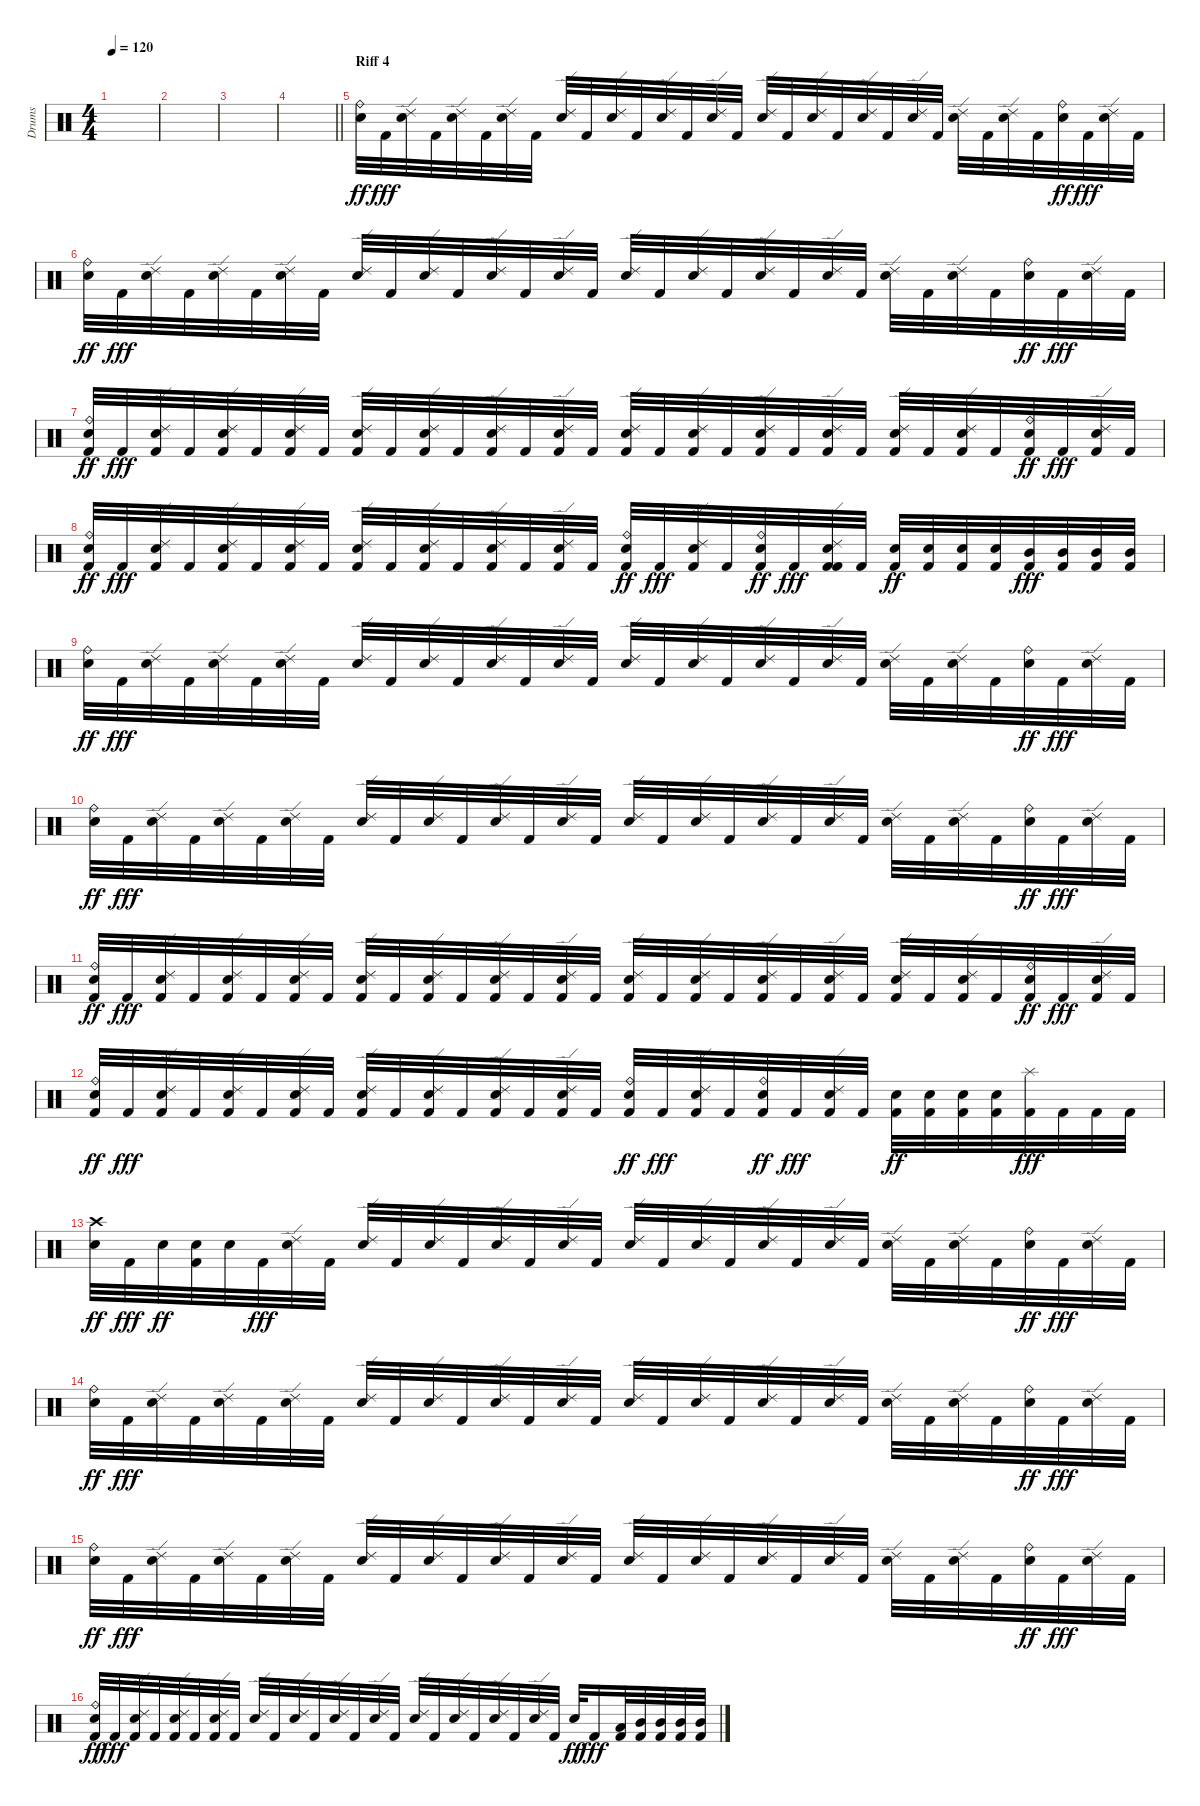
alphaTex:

\track ("Drums" "Drums") {instrument percussion}
\staff {score}
\articulation defaults
\ts (4 4)
\tempo 120
\clef neutral
\ks c
|
|
|
\barLineRight lightlight
|
\section ("" "Riff 4")
("Snare (hit) 2" "Ride (bell)").32{dy ff} "Kick (hit) 2".32{dy fff} ("Snare (hit) 2" "Ride (edge) 2").32 "Kick (hit) 2".32 ("Snare (hit) 2" "Ride (edge) 2").32 "Kick (hit) 2".32 ("Snare (hit) 2" "Ride (edge) 2").32 "Kick (hit) 2".32 ("Snare (hit) 2" "Ride (edge) 2").32 "Kick (hit) 2".32 ("Snare (hit) 2" "Ride (edge) 2").32 "Kick (hit) 2".32 ("Snare (hit) 2" "Ride (edge) 2").32 "Kick (hit) 2".32 ("Snare (hit) 2" "Ride (edge) 2").32 "Kick (hit) 2".32 ("Snare (hit) 2" "Ride (edge) 2").32 "Kick (hit) 2".32 ("Snare (hit) 2" "Ride (edge) 2").32 "Kick (hit) 2".32 ("Snare (hit) 2" "Ride (edge) 2").32 "Kick (hit) 2".32 ("Snare (hit) 2" "Ride (edge) 2").32 "Kick (hit) 2".32 ("Snare (hit) 2" "Ride (edge) 2").32 "Kick (hit) 2".32 ("Snare (hit) 2" "Ride (edge) 2").32 "Kick (hit) 2".32 ("Snare (hit) 2" "Ride (bell)").32{dy ff} "Kick (hit) 2".32{dy fff} ("Snare (hit) 2" "Ride (edge) 2").32 "Kick (hit) 2".32 |
("Snare (hit) 2" "Ride (bell)").32{dy ff} "Kick (hit) 2".32{dy fff} ("Snare (hit) 2" "Ride (edge) 2").32 "Kick (hit) 2".32 ("Snare (hit) 2" "Ride (edge) 2").32 "Kick (hit) 2".32 ("Snare (hit) 2" "Ride (edge) 2").32 "Kick (hit) 2".32 ("Snare (hit) 2" "Ride (edge) 2").32 "Kick (hit) 2".32 ("Snare (hit) 2" "Ride (edge) 2").32 "Kick (hit) 2".32 ("Snare (hit) 2" "Ride (edge) 2").32 "Kick (hit) 2".32 ("Snare (hit) 2" "Ride (edge) 2").32 "Kick (hit) 2".32 ("Snare (hit) 2" "Ride (edge) 2").32 "Kick (hit) 2".32 ("Snare (hit) 2" "Ride (edge) 2").32 "Kick (hit) 2".32 ("Snare (hit) 2" "Ride (edge) 2").32 "Kick (hit) 2".32 ("Snare (hit) 2" "Ride (edge) 2").32 "Kick (hit) 2".32 ("Snare (hit) 2" "Ride (edge) 2").32 "Kick (hit) 2".32 ("Snare (hit) 2" "Ride (edge) 2").32 "Kick (hit) 2".32 ("Snare (hit) 2" "Ride (bell)").32{dy ff} "Kick (hit) 2".32{dy fff} ("Snare (hit) 2" "Ride (edge) 2").32 "Kick (hit) 2".32 |
("Kick (hit) 2" "Snare (hit) 2" "Ride (bell)").32{dy ff} "Kick (hit) 2".32{dy fff} ("Kick (hit) 2" "Snare (hit) 2" "Ride (edge) 2").32 "Kick (hit) 2".32 ("Kick (hit) 2" "Snare (hit) 2" "Ride (edge) 2").32 "Kick (hit) 2".32 ("Kick (hit) 2" "Snare (hit) 2" "Ride (edge) 2").32 "Kick (hit) 2".32 ("Kick (hit) 2" "Snare (hit) 2" "Ride (edge) 2").32 "Kick (hit) 2".32 ("Kick (hit) 2" "Snare (hit) 2" "Ride (edge) 2").32 "Kick (hit) 2".32 ("Kick (hit) 2" "Snare (hit) 2" "Ride (edge) 2").32 "Kick (hit) 2".32 ("Kick (hit) 2" "Snare (hit) 2" "Ride (edge) 2").32 "Kick (hit) 2".32 ("Kick (hit) 2" "Snare (hit) 2" "Ride (edge) 2").32 "Kick (hit) 2".32 ("Kick (hit) 2" "Snare (hit) 2" "Ride (edge) 2").32 "Kick (hit) 2".32 ("Kick (hit) 2" "Snare (hit) 2" "Ride (edge) 2").32 "Kick (hit) 2".32 ("Kick (hit) 2" "Snare (hit) 2" "Ride (edge) 2").32 "Kick (hit) 2".32 ("Kick (hit) 2" "Snare (hit) 2" "Ride (edge) 2").32 "Kick (hit) 2".32 ("Kick (hit) 2" "Snare (hit) 2" "Ride (edge) 2").32 "Kick (hit) 2".32 ("Kick (hit) 2" "Snare (hit) 2" "Ride (bell)").32{dy ff} "Kick (hit) 2".32{dy fff} ("Kick (hit) 2" "Snare (hit) 2" "Ride (edge) 2").32 "Kick (hit) 2".32 |
("Kick (hit) 2" "Snare (hit) 2" "Ride (bell)").32{dy ff} "Kick (hit) 2".32{dy fff} ("Kick (hit) 2" "Snare (hit) 2" "Ride (edge) 2").32 "Kick (hit) 2".32 ("Kick (hit) 2" "Snare (hit) 2" "Ride (edge) 2").32 "Kick (hit) 2".32 ("Kick (hit) 2" "Snare (hit) 2" "Ride (edge) 2").32 "Kick (hit) 2".32 ("Kick (hit) 2" "Snare (hit) 2" "Ride (edge) 2").32 "Kick (hit) 2".32 ("Kick (hit) 2" "Snare (hit) 2" "Ride (edge) 2").32 "Kick (hit) 2".32 ("Kick (hit) 2" "Snare (hit) 2" "Ride (edge) 2").32 "Kick (hit) 2".32 ("Kick (hit) 2" "Snare (hit) 2" "Ride (edge) 2").32 "Kick (hit) 2".32 ("Kick (hit) 2" "Snare (hit) 2" "Ride (bell)").32{dy ff} "Kick (hit) 2".32{dy fff} ("Kick (hit) 2" "Snare (hit) 2" "Ride (edge) 2").32 "Kick (hit) 2".32 ("Kick (hit) 2" "Snare (hit) 2" "Ride (bell)").32{dy ff} "Kick (hit) 2".32{dy fff} ("Kick (hit) 2" "Snare (hit) 2" "Kick (hit) 2" "Ride (edge) 2").32 "Kick (hit) 2".32 ("Kick (hit) 2" "Snare (hit) 2").32{dy ff} ("Kick (hit) 2" "Snare (hit) 2").32 ("Kick (hit) 2" "Snare (hit) 2").32 ("Kick (hit) 2" "Snare (hit) 2").32 ("Kick (hit) 2" "Mid Tom (hit)").32{dy fff} ("Kick (hit) 2" "Mid Tom (hit)").32 ("Kick (hit) 2" "Mid Tom (hit)").32 ("Kick (hit) 2" "Mid Tom (hit)").32 |
("Snare (hit) 2" "Ride (bell)").32{dy ff} "Kick (hit) 2".32{dy fff} ("Snare (hit) 2" "Ride (edge) 2").32 "Kick (hit) 2".32 ("Snare (hit) 2" "Ride (edge) 2").32 "Kick (hit) 2".32 ("Snare (hit) 2" "Ride (edge) 2").32 "Kick (hit) 2".32 ("Snare (hit) 2" "Ride (edge) 2").32 "Kick (hit) 2".32 ("Snare (hit) 2" "Ride (edge) 2").32 "Kick (hit) 2".32 ("Snare (hit) 2" "Ride (edge) 2").32 "Kick (hit) 2".32 ("Snare (hit) 2" "Ride (edge) 2").32 "Kick (hit) 2".32 ("Snare (hit) 2" "Ride (edge) 2").32 "Kick (hit) 2".32 ("Snare (hit) 2" "Ride (edge) 2").32 "Kick (hit) 2".32 ("Snare (hit) 2" "Ride (edge) 2").32 "Kick (hit) 2".32 ("Snare (hit) 2" "Ride (edge) 2").32 "Kick (hit) 2".32 ("Snare (hit) 2" "Ride (edge) 2").32 "Kick (hit) 2".32 ("Snare (hit) 2" "Ride (edge) 2").32 "Kick (hit) 2".32 ("Snare (hit) 2" "Ride (bell)").32{dy ff} "Kick (hit) 2".32{dy fff} ("Snare (hit) 2" "Ride (edge) 2").32 "Kick (hit) 2".32 |
("Snare (hit) 2" "Ride (bell)").32{dy ff} "Kick (hit) 2".32{dy fff} ("Snare (hit) 2" "Ride (edge) 2").32 "Kick (hit) 2".32 ("Snare (hit) 2" "Ride (edge) 2").32 "Kick (hit) 2".32 ("Snare (hit) 2" "Ride (edge) 2").32 "Kick (hit) 2".32 ("Snare (hit) 2" "Ride (edge) 2").32 "Kick (hit) 2".32 ("Snare (hit) 2" "Ride (edge) 2").32 "Kick (hit) 2".32 ("Snare (hit) 2" "Ride (edge) 2").32 "Kick (hit) 2".32 ("Snare (hit) 2" "Ride (edge) 2").32 "Kick (hit) 2".32 ("Snare (hit) 2" "Ride (edge) 2").32 "Kick (hit) 2".32 ("Snare (hit) 2" "Ride (edge) 2").32 "Kick (hit) 2".32 ("Snare (hit) 2" "Ride (edge) 2").32 "Kick (hit) 2".32 ("Snare (hit) 2" "Ride (edge) 2").32 "Kick (hit) 2".32 ("Snare (hit) 2" "Ride (edge) 2").32 "Kick (hit) 2".32 ("Snare (hit) 2" "Ride (edge) 2").32 "Kick (hit) 2".32 ("Snare (hit) 2" "Ride (bell)").32{dy ff} "Kick (hit) 2".32{dy fff} ("Snare (hit) 2" "Ride (edge) 2").32 "Kick (hit) 2".32 |
("Kick (hit) 2" "Snare (hit) 2" "Ride (bell)").32{dy ff} "Kick (hit) 2".32{dy fff} ("Kick (hit) 2" "Snare (hit) 2" "Ride (edge) 2").32 "Kick (hit) 2".32 ("Kick (hit) 2" "Snare (hit) 2" "Ride (edge) 2").32 "Kick (hit) 2".32 ("Kick (hit) 2" "Snare (hit) 2" "Ride (edge) 2").32 "Kick (hit) 2".32 ("Kick (hit) 2" "Snare (hit) 2" "Ride (edge) 2").32 "Kick (hit) 2".32 ("Kick (hit) 2" "Snare (hit) 2" "Ride (edge) 2").32 "Kick (hit) 2".32 ("Kick (hit) 2" "Snare (hit) 2" "Ride (edge) 2").32 "Kick (hit) 2".32 ("Kick (hit) 2" "Snare (hit) 2" "Ride (edge) 2").32 "Kick (hit) 2".32 ("Kick (hit) 2" "Snare (hit) 2" "Ride (edge) 2").32 "Kick (hit) 2".32 ("Kick (hit) 2" "Snare (hit) 2" "Ride (edge) 2").32 "Kick (hit) 2".32 ("Kick (hit) 2" "Snare (hit) 2" "Ride (edge) 2").32 "Kick (hit) 2".32 ("Kick (hit) 2" "Snare (hit) 2" "Ride (edge) 2").32 "Kick (hit) 2".32 ("Kick (hit) 2" "Snare (hit) 2" "Ride (edge) 2").32 "Kick (hit) 2".32 ("Kick (hit) 2" "Snare (hit) 2" "Ride (edge) 2").32 "Kick (hit) 2".32 ("Kick (hit) 2" "Snare (hit) 2" "Ride (bell)").32{dy ff} "Kick (hit) 2".32{dy fff} ("Kick (hit) 2" "Snare (hit) 2" "Ride (edge) 2").32 "Kick (hit) 2".32 |
("Kick (hit) 2" "Snare (hit) 2" "Ride (bell)").32{dy ff} "Kick (hit) 2".32{dy fff} ("Kick (hit) 2" "Snare (hit) 2" "Ride (edge) 2").32 "Kick (hit) 2".32 ("Kick (hit) 2" "Snare (hit) 2" "Ride (edge) 2").32 "Kick (hit) 2".32 ("Kick (hit) 2" "Snare (hit) 2" "Ride (edge) 2").32 "Kick (hit) 2".32 ("Kick (hit) 2" "Snare (hit) 2" "Ride (edge) 2").32 "Kick (hit) 2".32 ("Kick (hit) 2" "Snare (hit) 2" "Ride (edge) 2").32 "Kick (hit) 2".32 ("Kick (hit) 2" "Snare (hit) 2" "Ride (edge) 2").32 "Kick (hit) 2".32 ("Kick (hit) 2" "Snare (hit) 2" "Ride (edge) 2").32 "Kick (hit) 2".32 ("Kick (hit) 2" "Snare (hit) 2" "Ride (bell)").32{dy ff} "Kick (hit) 2".32{dy fff} ("Kick (hit) 2" "Snare (hit) 2" "Ride (edge) 2").32 "Kick (hit) 2".32 ("Kick (hit) 2" "Snare (hit) 2" "Ride (bell)").32{dy ff} "Kick (hit) 2".32{dy fff} ("Kick (hit) 2" "Snare (hit) 2" "Ride (edge) 2").32 "Kick (hit) 2".32 ("Kick (hit) 2" "Snare (hit) 2").32{dy ff} ("Kick (hit) 2" "Snare (hit) 2").32 ("Kick (hit) 2" "Snare (hit) 2").32 ("Kick (hit) 2" "Snare (hit) 2").32 ("Kick (hit) 2" "Splash (hit)").32{dy fff} "Kick (hit) 2".32 "Kick (hit) 2".32 "Kick (hit) 2".32 |
("Snare (hit) 2" "Crash high (hit)").32{dy ff} "Kick (hit) 2".32{dy fff} "Snare (hit) 2".32{dy ff} ("Kick (hit) 2" "Snare (hit) 2").32 "Snare (hit) 2".32 "Kick (hit) 2".32{dy fff} ("Snare (hit) 2" "Ride (edge) 2").32 "Kick (hit) 2".32 ("Snare (hit) 2" "Ride (edge) 2").32 "Kick (hit) 2".32 ("Snare (hit) 2" "Ride (edge) 2").32 "Kick (hit) 2".32 ("Snare (hit) 2" "Ride (edge) 2").32 "Kick (hit) 2".32 ("Snare (hit) 2" "Ride (edge) 2").32 "Kick (hit) 2".32 ("Snare (hit) 2" "Ride (edge) 2").32 "Kick (hit) 2".32 ("Snare (hit) 2" "Ride (edge) 2").32 "Kick (hit) 2".32 ("Snare (hit) 2" "Ride (edge) 2").32 "Kick (hit) 2".32 ("Snare (hit) 2" "Ride (edge) 2").32 "Kick (hit) 2".32 ("Snare (hit) 2" "Ride (edge) 2").32 "Kick (hit) 2".32 ("Snare (hit) 2" "Ride (edge) 2").32 "Kick (hit) 2".32 ("Snare (hit) 2" "Ride (bell)").32{dy ff} "Kick (hit) 2".32{dy fff} ("Snare (hit) 2" "Ride (edge) 2").32 "Kick (hit) 2".32 |
("Snare (hit) 2" "Ride (bell)").32{dy ff} "Kick (hit) 2".32{dy fff} ("Snare (hit) 2" "Ride (edge) 2").32 "Kick (hit) 2".32 ("Snare (hit) 2" "Ride (edge) 2").32 "Kick (hit) 2".32 ("Snare (hit) 2" "Ride (edge) 2").32 "Kick (hit) 2".32 ("Snare (hit) 2" "Ride (edge) 2").32 "Kick (hit) 2".32 ("Snare (hit) 2" "Ride (edge) 2").32 "Kick (hit) 2".32 ("Snare (hit) 2" "Ride (edge) 2").32 "Kick (hit) 2".32 ("Snare (hit) 2" "Ride (edge) 2").32 "Kick (hit) 2".32 ("Snare (hit) 2" "Ride (edge) 2").32 "Kick (hit) 2".32 ("Snare (hit) 2" "Ride (edge) 2").32 "Kick (hit) 2".32 ("Snare (hit) 2" "Ride (edge) 2").32 "Kick (hit) 2".32 ("Snare (hit) 2" "Ride (edge) 2").32 "Kick (hit) 2".32 ("Snare (hit) 2" "Ride (edge) 2").32 "Kick (hit) 2".32 ("Snare (hit) 2" "Ride (edge) 2").32 "Kick (hit) 2".32 ("Snare (hit) 2" "Ride (bell)").32{dy ff} "Kick (hit) 2".32{dy fff} ("Snare (hit) 2" "Ride (edge) 2").32 "Kick (hit) 2".32 |
("Snare (hit) 2" "Ride (bell)").32{dy ff} "Kick (hit) 2".32{dy fff} ("Snare (hit) 2" "Ride (edge) 2").32 "Kick (hit) 2".32 ("Snare (hit) 2" "Ride (edge) 2").32 "Kick (hit) 2".32 ("Snare (hit) 2" "Ride (edge) 2").32 "Kick (hit) 2".32 ("Snare (hit) 2" "Ride (edge) 2").32 "Kick (hit) 2".32 ("Snare (hit) 2" "Ride (edge) 2").32 "Kick (hit) 2".32 ("Snare (hit) 2" "Ride (edge) 2").32 "Kick (hit) 2".32 ("Snare (hit) 2" "Ride (edge) 2").32 "Kick (hit) 2".32 ("Snare (hit) 2" "Ride (edge) 2").32 "Kick (hit) 2".32 ("Snare (hit) 2" "Ride (edge) 2").32 "Kick (hit) 2".32 ("Snare (hit) 2" "Ride (edge) 2").32 "Kick (hit) 2".32 ("Snare (hit) 2" "Ride (edge) 2").32 "Kick (hit) 2".32 ("Snare (hit) 2" "Ride (edge) 2").32 "Kick (hit) 2".32 ("Snare (hit) 2" "Ride (edge) 2").32 "Kick (hit) 2".32 ("Snare (hit) 2" "Ride (bell)").32{dy ff} "Kick (hit) 2".32{dy fff} ("Snare (hit) 2" "Ride (edge) 2").32 "Kick (hit) 2".32 |
("Kick (hit) 2" "Snare (hit) 2" "Ride (bell)").32{dy ff} "Kick (hit) 2".32{dy fff} ("Kick (hit) 2" "Snare (hit) 2" "Ride (edge) 2").32 "Kick (hit) 2".32 ("Kick (hit) 2" "Snare (hit) 2" "Ride (edge) 2").32 "Kick (hit) 2".32 ("Kick (hit) 2" "Snare (hit) 2" "Ride (edge) 2").32 "Kick (hit) 2".32 ("Snare (hit) 2" "Ride (edge) 2").32 "Kick (hit) 2".32 ("Snare (hit) 2" "Ride (edge) 2").32 "Kick (hit) 2".32 ("Snare (hit) 2" "Ride (edge) 2").32 "Kick (hit) 2".32 ("Snare (hit) 2" "Ride (edge) 2").32 "Kick (hit) 2".32 ("Snare (hit) 2" "Ride (edge) 2").32 "Kick (hit) 2".32 ("Snare (hit) 2" "Ride (edge) 2").32 "Kick (hit) 2".32 ("Snare (hit) 2" "Ride (edge) 2").32 "Kick (hit) 2".32 ("Snare (hit) 2" "Ride (edge) 2").32 "Kick (hit) 2".32 "Snare (hit) 2".32{dy ff} "Kick (hit) 2".16{dy fff} ("Kick (hit) 2" "Low Tom (hit)").32 ("Kick (hit) 2" "Mid Tom (hit)").32 ("Kick (hit) 2" "Mid Tom (hit)").32 ("Kick (hit) 2" "Mid Tom (hit)").32 ("Kick (hit) 2" "Mid Tom (hit)").32
